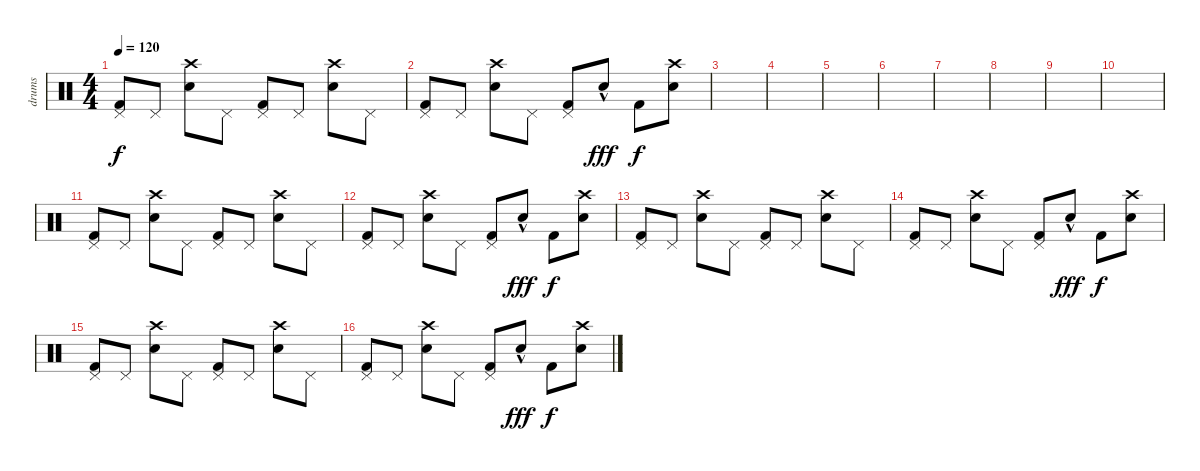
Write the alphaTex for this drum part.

\track ("drums" "drums") {instrument percussion}
\staff {score}
\articulation defaults
\ts (4 4)
\tempo 120
\clef neutral
\ks c
("Pedal Hi-Hat (hit)" "Kick (hit) 2").8{dy f} "Pedal Hi-Hat (hit)".8 ("Crash high (hit)" "Electric Snare (hit)").8 "Pedal Hi-Hat (hit)".8 ("Pedal Hi-Hat (hit)" "Kick (hit) 2").8 "Pedal Hi-Hat (hit)".8 ("Crash high (hit)" "Electric Snare (hit)").8 "Pedal Hi-Hat (hit)".8 |
("Pedal Hi-Hat (hit)" "Kick (hit) 2").8 "Pedal Hi-Hat (hit)".8 ("Crash high (hit)" "Electric Snare (hit)").8 "Pedal Hi-Hat (hit)".8 ("Pedal Hi-Hat (hit)" "Kick (hit) 2").8 "Electric Snare (hit)"{hac}.8{dy fff} "Kick (hit) 2".8{dy f} ("Crash high (hit)" "Electric Snare (hit)").8 |
|
|
|
|
|
|
|
|
("Pedal Hi-Hat (hit)" "Kick (hit) 2").8 "Pedal Hi-Hat (hit)".8 ("Crash high (hit)" "Electric Snare (hit)").8 "Pedal Hi-Hat (hit)".8 ("Pedal Hi-Hat (hit)" "Kick (hit) 2").8 "Pedal Hi-Hat (hit)".8 ("Crash high (hit)" "Electric Snare (hit)").8 "Pedal Hi-Hat (hit)".8 |
("Pedal Hi-Hat (hit)" "Kick (hit) 2").8 "Pedal Hi-Hat (hit)".8 ("Crash high (hit)" "Electric Snare (hit)").8 "Pedal Hi-Hat (hit)".8 ("Pedal Hi-Hat (hit)" "Kick (hit) 2").8 "Electric Snare (hit)"{hac}.8{dy fff} "Kick (hit) 2".8{dy f} ("Crash high (hit)" "Electric Snare (hit)").8 |
("Pedal Hi-Hat (hit)" "Kick (hit) 2").8 "Pedal Hi-Hat (hit)".8 ("Crash high (hit)" "Electric Snare (hit)").8 "Pedal Hi-Hat (hit)".8 ("Pedal Hi-Hat (hit)" "Kick (hit) 2").8 "Pedal Hi-Hat (hit)".8 ("Crash high (hit)" "Electric Snare (hit)").8 "Pedal Hi-Hat (hit)".8 |
("Pedal Hi-Hat (hit)" "Kick (hit) 2").8 "Pedal Hi-Hat (hit)".8 ("Crash high (hit)" "Electric Snare (hit)").8 "Pedal Hi-Hat (hit)".8 ("Pedal Hi-Hat (hit)" "Kick (hit) 2").8 "Electric Snare (hit)"{hac}.8{dy fff} "Kick (hit) 2".8{dy f} ("Crash high (hit)" "Electric Snare (hit)").8 |
("Pedal Hi-Hat (hit)" "Kick (hit) 2").8 "Pedal Hi-Hat (hit)".8 ("Crash high (hit)" "Electric Snare (hit)").8 "Pedal Hi-Hat (hit)".8 ("Pedal Hi-Hat (hit)" "Kick (hit) 2").8 "Pedal Hi-Hat (hit)".8 ("Crash high (hit)" "Electric Snare (hit)").8 "Pedal Hi-Hat (hit)".8 |
("Pedal Hi-Hat (hit)" "Kick (hit) 2").8 "Pedal Hi-Hat (hit)".8 ("Crash high (hit)" "Electric Snare (hit)").8 "Pedal Hi-Hat (hit)".8 ("Pedal Hi-Hat (hit)" "Kick (hit) 2").8 "Electric Snare (hit)"{hac}.8{dy fff} "Kick (hit) 2".8{dy f} ("Crash high (hit)" "Electric Snare (hit)").8
